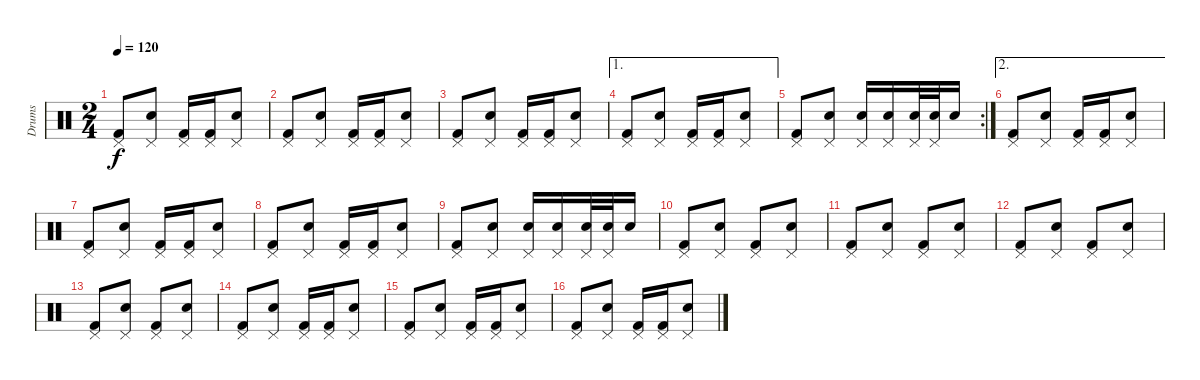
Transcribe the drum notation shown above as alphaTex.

\track ("Drums" "Drums") {instrument percussion}
\staff {score}
\articulation defaults
\ts (2 4)
\tempo 120
\clef neutral
\ks c
("Kick (hit) 2" "Pedal Hi-Hat (hit)").8{dy f} ("Electric Snare (hit)" "Pedal Hi-Hat (hit)").8 ("Kick (hit) 2" "Pedal Hi-Hat (hit)").16 ("Kick (hit) 2" "Pedal Hi-Hat (hit)").16 ("Electric Snare (hit)" "Pedal Hi-Hat (hit)").8 |
("Kick (hit) 2" "Pedal Hi-Hat (hit)").8 ("Electric Snare (hit)" "Pedal Hi-Hat (hit)").8 ("Kick (hit) 2" "Pedal Hi-Hat (hit)").16 ("Kick (hit) 2" "Pedal Hi-Hat (hit)").16 ("Electric Snare (hit)" "Pedal Hi-Hat (hit)").8 |
("Kick (hit) 2" "Pedal Hi-Hat (hit)").8 ("Electric Snare (hit)" "Pedal Hi-Hat (hit)").8 ("Kick (hit) 2" "Pedal Hi-Hat (hit)").16 ("Kick (hit) 2" "Pedal Hi-Hat (hit)").16 ("Electric Snare (hit)" "Pedal Hi-Hat (hit)").8 |
\ae 1
("Kick (hit) 2" "Pedal Hi-Hat (hit)").8 ("Electric Snare (hit)" "Pedal Hi-Hat (hit)").8 ("Kick (hit) 2" "Pedal Hi-Hat (hit)").16 ("Kick (hit) 2" "Pedal Hi-Hat (hit)").16 ("Electric Snare (hit)" "Pedal Hi-Hat (hit)").8 |
\rc 2
("Kick (hit) 2" "Pedal Hi-Hat (hit)").8 ("Electric Snare (hit)" "Pedal Hi-Hat (hit)").8 ("Electric Snare (hit)" "Pedal Hi-Hat (hit)").16 ("Electric Snare (hit)" "Pedal Hi-Hat (hit)").16 ("Electric Snare (hit)" "Pedal Hi-Hat (hit)").32 ("Electric Snare (hit)" "Pedal Hi-Hat (hit)").32 "Electric Snare (hit)".16 |
\ae 2
("Kick (hit) 2" "Pedal Hi-Hat (hit)").8 ("Electric Snare (hit)" "Pedal Hi-Hat (hit)").8 ("Kick (hit) 2" "Pedal Hi-Hat (hit)").16 ("Kick (hit) 2" "Pedal Hi-Hat (hit)").16 ("Electric Snare (hit)" "Pedal Hi-Hat (hit)").8 |
("Kick (hit) 2" "Pedal Hi-Hat (hit)").8 ("Electric Snare (hit)" "Pedal Hi-Hat (hit)").8 ("Kick (hit) 2" "Pedal Hi-Hat (hit)").16 ("Kick (hit) 2" "Pedal Hi-Hat (hit)").16 ("Electric Snare (hit)" "Pedal Hi-Hat (hit)").8 |
("Kick (hit) 2" "Pedal Hi-Hat (hit)").8 ("Electric Snare (hit)" "Pedal Hi-Hat (hit)").8 ("Kick (hit) 2" "Pedal Hi-Hat (hit)").16 ("Kick (hit) 2" "Pedal Hi-Hat (hit)").16 ("Electric Snare (hit)" "Pedal Hi-Hat (hit)").8 |
("Kick (hit) 2" "Pedal Hi-Hat (hit)").8 ("Electric Snare (hit)" "Pedal Hi-Hat (hit)").8 ("Electric Snare (hit)" "Pedal Hi-Hat (hit)").16 ("Electric Snare (hit)" "Pedal Hi-Hat (hit)").16 ("Electric Snare (hit)" "Pedal Hi-Hat (hit)").32 ("Electric Snare (hit)" "Pedal Hi-Hat (hit)").32 "Electric Snare (hit)".16 |
("Kick (hit) 2" "Pedal Hi-Hat (hit)").8 ("Electric Snare (hit)" "Pedal Hi-Hat (hit)").8 ("Kick (hit) 2" "Pedal Hi-Hat (hit)").8 ("Electric Snare (hit)" "Pedal Hi-Hat (hit)").8 |
("Kick (hit) 2" "Pedal Hi-Hat (hit)").8 ("Electric Snare (hit)" "Pedal Hi-Hat (hit)").8 ("Kick (hit) 2" "Pedal Hi-Hat (hit)").8 ("Electric Snare (hit)" "Pedal Hi-Hat (hit)").8 |
("Kick (hit) 2" "Pedal Hi-Hat (hit)").8 ("Electric Snare (hit)" "Pedal Hi-Hat (hit)").8 ("Kick (hit) 2" "Pedal Hi-Hat (hit)").8 ("Electric Snare (hit)" "Pedal Hi-Hat (hit)").8 |
("Kick (hit) 2" "Pedal Hi-Hat (hit)").8 ("Electric Snare (hit)" "Pedal Hi-Hat (hit)").8 ("Kick (hit) 2" "Pedal Hi-Hat (hit)").8 ("Electric Snare (hit)" "Pedal Hi-Hat (hit)").8 |
("Kick (hit) 2" "Pedal Hi-Hat (hit)").8 ("Electric Snare (hit)" "Pedal Hi-Hat (hit)").8 ("Kick (hit) 2" "Pedal Hi-Hat (hit)").16 ("Kick (hit) 2" "Pedal Hi-Hat (hit)").16 ("Electric Snare (hit)" "Pedal Hi-Hat (hit)").8 |
("Kick (hit) 2" "Pedal Hi-Hat (hit)").8 ("Electric Snare (hit)" "Pedal Hi-Hat (hit)").8 ("Kick (hit) 2" "Pedal Hi-Hat (hit)").16 ("Kick (hit) 2" "Pedal Hi-Hat (hit)").16 ("Electric Snare (hit)" "Pedal Hi-Hat (hit)").8 |
("Kick (hit) 2" "Pedal Hi-Hat (hit)").8 ("Electric Snare (hit)" "Pedal Hi-Hat (hit)").8 ("Kick (hit) 2" "Pedal Hi-Hat (hit)").16 ("Kick (hit) 2" "Pedal Hi-Hat (hit)").16 ("Electric Snare (hit)" "Pedal Hi-Hat (hit)").8
